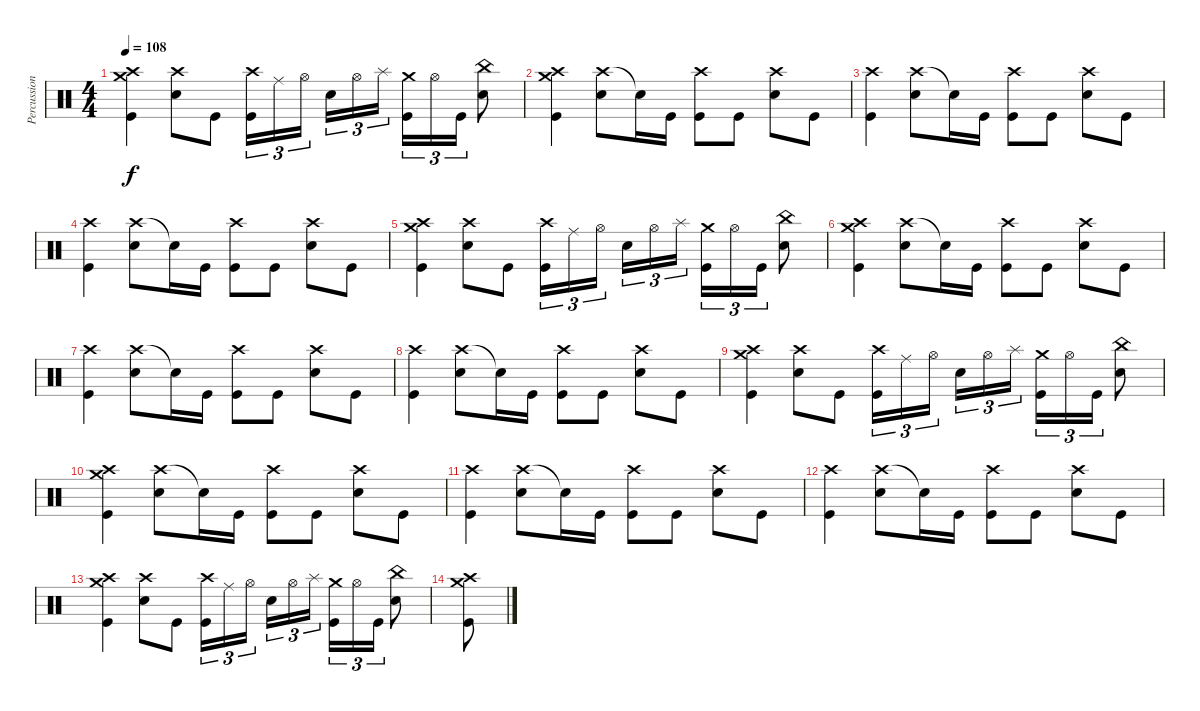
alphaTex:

\track ("Percussion" "Percussion") {instrument percussion}
\staff {score}
\articulation defaults
\ts (4 4)
\tempo 108
\clef neutral
\ks c
("Crash high (hit)" "Crash medium (hit)" "Kick (hit)").4{dy f} ("Crash high (hit)" "Snare (hit) 2").8 "Kick (hit)".8 ("Crash high (hit)" "Kick (hit)").16{tu (3 2)} "Ride (middle)".16{tu (3 2)} "Hi-Hat (open)".16{tu (3 2) beam splitsecondary} "Snare (hit) 2".16{tu (3 2)} "Hi-Hat (open)".16{tu (3 2)} "Splash (hit)".16{tu (3 2)} ("Crash medium (hit)" "Kick (hit)").16{tu (3 2)} "Hi-Hat (open)".16{tu (3 2)} "Kick (hit)".16{tu (3 2)} ("China (hit)" "Snare (hit) 2").8 |
("Crash medium (hit)" "Crash high (hit)" "Kick (hit)").4 ("Crash high (hit)" "Snare (hit) 2").8 "Snare (hit)"{t}.16 "Kick (hit)".16 ("Crash high (hit)" "Kick (hit)").8 "Kick (hit)".8 ("Crash high (hit)" "Snare (hit) 2").8 "Kick (hit)".8 |
("Crash high (hit)" "Kick (hit)").4 ("Crash high (hit)" "Snare (hit) 2").8 "Snare (hit)"{t}.16 "Kick (hit)".16 ("Crash high (hit)" "Kick (hit)").8 "Kick (hit)".8 ("Crash high (hit)" "Snare (hit) 2").8 "Kick (hit)".8 |
("Crash high (hit)" "Kick (hit)").4 ("Crash high (hit)" "Snare (hit) 2").8 "Snare (hit)"{t}.16 "Kick (hit)".16 ("Crash high (hit)" "Kick (hit)").8 "Kick (hit)".8 ("Crash high (hit)" "Snare (hit) 2").8 "Kick (hit)".8 |
("Crash high (hit)" "Crash medium (hit)" "Kick (hit)").4 ("Crash high (hit)" "Snare (hit) 2").8 "Kick (hit)".8 ("Crash high (hit)" "Kick (hit)").16{tu (3 2)} "Ride (middle)".16{tu (3 2)} "Hi-Hat (open)".16{tu (3 2) beam splitsecondary} "Snare (hit) 2".16{tu (3 2)} "Hi-Hat (open)".16{tu (3 2)} "Splash (hit)".16{tu (3 2)} ("Crash medium (hit)" "Kick (hit)").16{tu (3 2)} "Hi-Hat (open)".16{tu (3 2)} "Kick (hit)".16{tu (3 2)} ("China (hit)" "Snare (hit) 2").8 |
("Crash medium (hit)" "Crash high (hit)" "Kick (hit)").4 ("Crash high (hit)" "Snare (hit) 2").8 "Snare (hit)"{t}.16 "Kick (hit)".16 ("Crash high (hit)" "Kick (hit)").8 "Kick (hit)".8 ("Crash high (hit)" "Snare (hit) 2").8 "Kick (hit)".8 |
("Crash high (hit)" "Kick (hit)").4 ("Crash high (hit)" "Snare (hit) 2").8 "Snare (hit)"{t}.16 "Kick (hit)".16 ("Crash high (hit)" "Kick (hit)").8 "Kick (hit)".8 ("Crash high (hit)" "Snare (hit) 2").8 "Kick (hit)".8 |
("Crash high (hit)" "Kick (hit)").4 ("Crash high (hit)" "Snare (hit) 2").8 "Snare (hit)"{t}.16 "Kick (hit)".16 ("Crash high (hit)" "Kick (hit)").8 "Kick (hit)".8 ("Crash high (hit)" "Snare (hit) 2").8 "Kick (hit)".8 |
("Crash high (hit)" "Crash medium (hit)" "Kick (hit)").4 ("Crash high (hit)" "Snare (hit) 2").8 "Kick (hit)".8 ("Crash high (hit)" "Kick (hit)").16{tu (3 2)} "Ride (middle)".16{tu (3 2)} "Hi-Hat (open)".16{tu (3 2) beam splitsecondary} "Snare (hit) 2".16{tu (3 2)} "Hi-Hat (open)".16{tu (3 2)} "Splash (hit)".16{tu (3 2)} ("Crash medium (hit)" "Kick (hit)").16{tu (3 2)} "Hi-Hat (open)".16{tu (3 2)} "Kick (hit)".16{tu (3 2)} ("China (hit)" "Snare (hit) 2").8 |
("Crash medium (hit)" "Crash high (hit)" "Kick (hit)").4 ("Crash high (hit)" "Snare (hit) 2").8 "Snare (hit)"{t}.16 "Kick (hit)".16 ("Crash high (hit)" "Kick (hit)").8 "Kick (hit)".8 ("Crash high (hit)" "Snare (hit) 2").8 "Kick (hit)".8 |
("Crash high (hit)" "Kick (hit)").4 ("Crash high (hit)" "Snare (hit) 2").8 "Snare (hit)"{t}.16 "Kick (hit)".16 ("Crash high (hit)" "Kick (hit)").8 "Kick (hit)".8 ("Crash high (hit)" "Snare (hit) 2").8 "Kick (hit)".8 |
("Crash high (hit)" "Kick (hit)").4 ("Crash high (hit)" "Snare (hit) 2").8 "Snare (hit)"{t}.16 "Kick (hit)".16 ("Crash high (hit)" "Kick (hit)").8 "Kick (hit)".8 ("Crash high (hit)" "Snare (hit) 2").8 "Kick (hit)".8 |
("Crash high (hit)" "Crash medium (hit)" "Kick (hit)").4 ("Crash high (hit)" "Snare (hit) 2").8 "Kick (hit)".8 ("Crash high (hit)" "Kick (hit)").16{tu (3 2)} "Ride (middle)".16{tu (3 2)} "Hi-Hat (open)".16{tu (3 2) beam splitsecondary} "Snare (hit) 2".16{tu (3 2)} "Hi-Hat (open)".16{tu (3 2)} "Splash (hit)".16{tu (3 2)} ("Crash medium (hit)" "Kick (hit)").16{tu (3 2)} "Hi-Hat (open)".16{tu (3 2)} "Kick (hit)".16{tu (3 2)} ("China (hit)" "Snare (hit) 2").8 |
("Crash medium (hit)" "Crash high (hit)" "Kick (hit)").8
